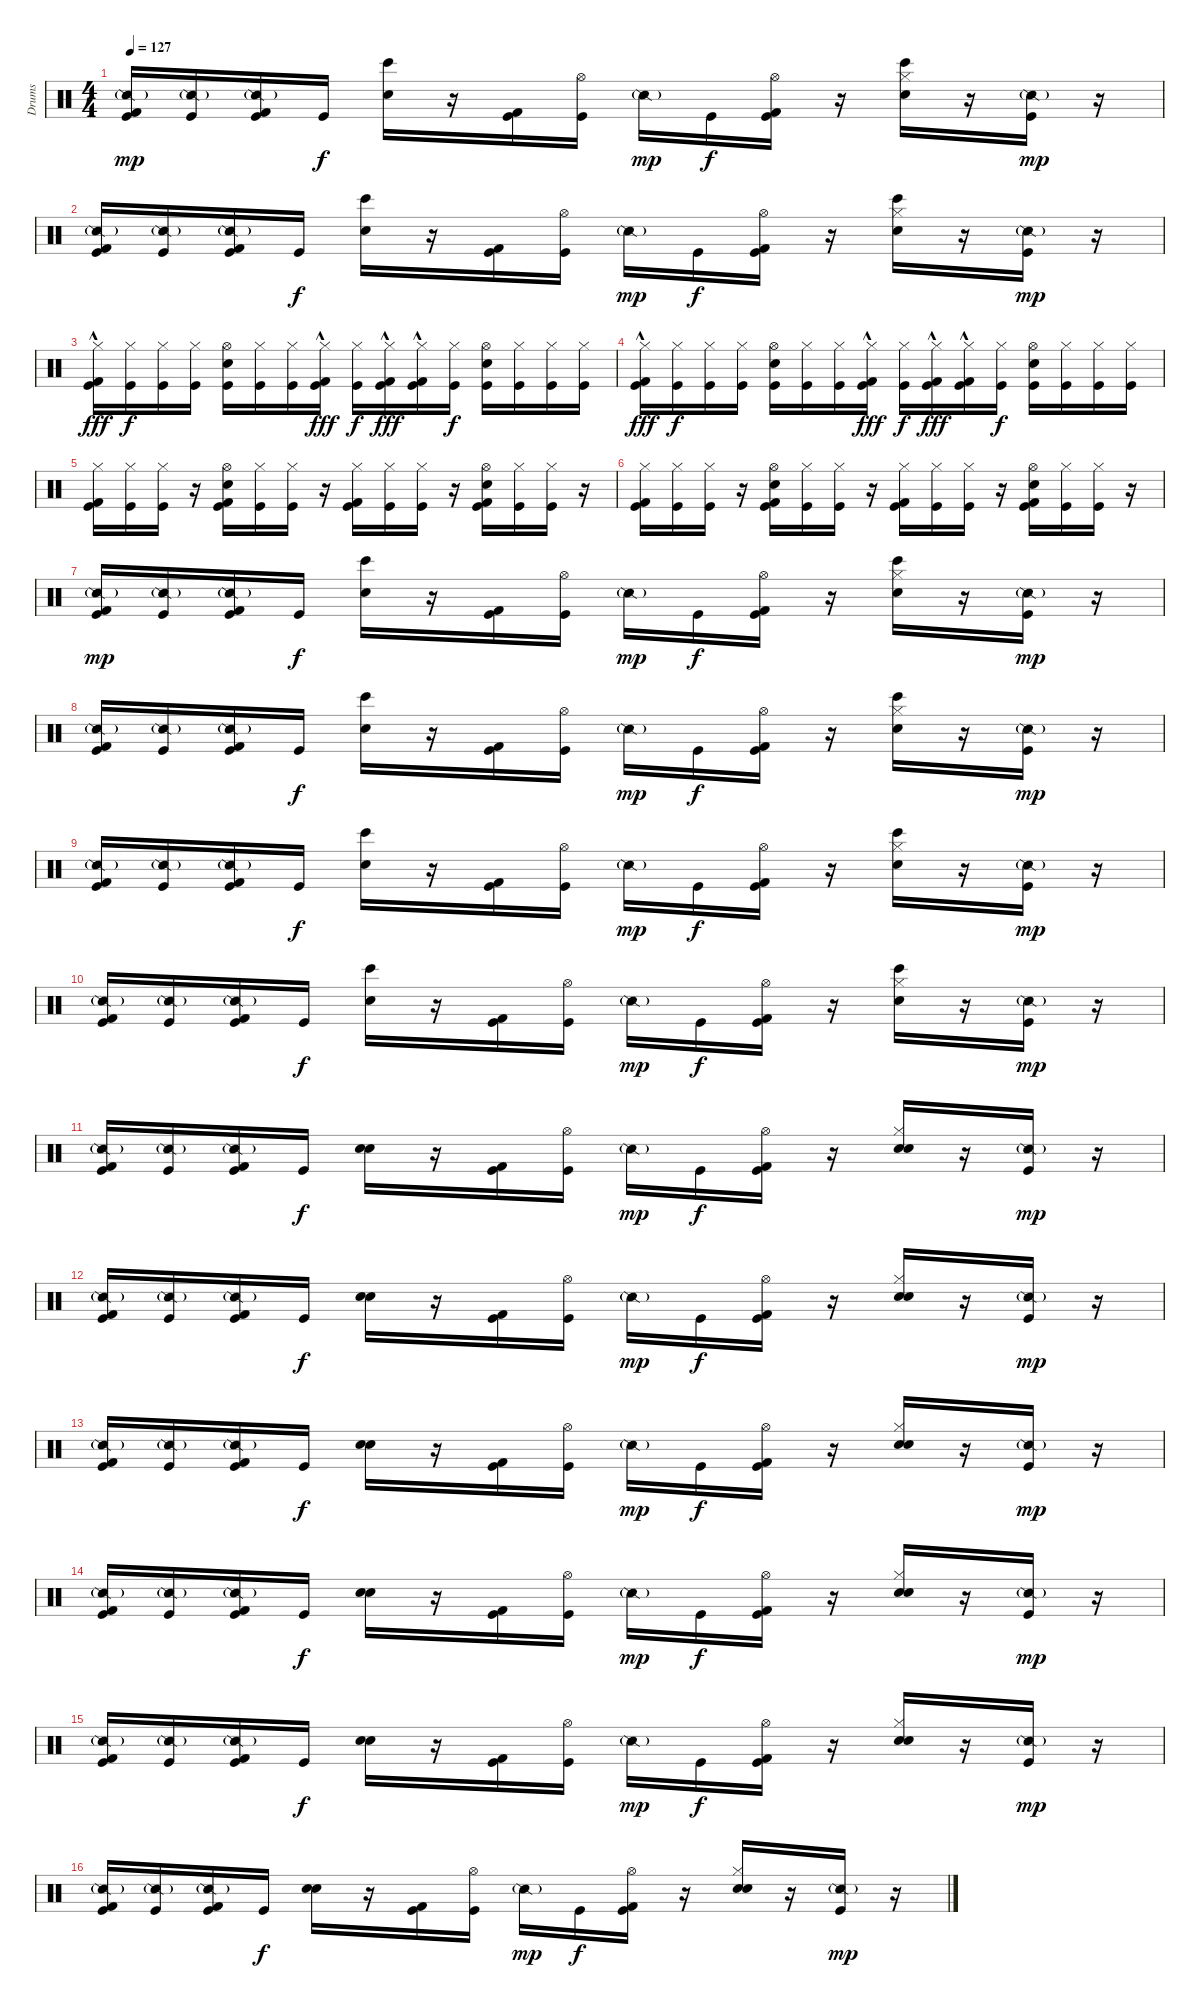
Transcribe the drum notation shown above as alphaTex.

\track ("Drums" "Drums") {instrument percussion}
\staff {score}
\articulation defaults
\ts (4 4)
\tempo 127
\clef neutral
\ks c
("Snare (side stick) 2"{g} "Kick (hit) 2" "Kick (hit)").16{dy mp} ("Snare (side stick) 2"{g} "Kick (hit)").16 ("Snare (side stick) 2"{g} "Kick (hit) 2" "Kick (hit)").16 "Kick (hit)".16{dy f} ("Snare (hit) 2" "Bongo High (hit)").16 r.16 ("Kick (hit) 2" "Kick (hit)").16 ("Hi-Hat (open)" "Kick (hit)").16 "Snare (side stick) 2"{g}.16{dy mp} "Kick (hit)".16{dy f} ("Hi-Hat (open)" "Kick (hit) 2" "Kick (hit)").16 r.16 ("Hi-Hat (closed)" "Snare (hit) 2" "Bongo High (hit)").16 r.16 ("Snare (side stick) 2"{g} "Kick (hit)").16{dy mp} r.16 |
("Snare (side stick) 2"{g} "Kick (hit) 2" "Kick (hit)").16 ("Snare (side stick) 2"{g} "Kick (hit)").16 ("Snare (side stick) 2"{g} "Kick (hit) 2" "Kick (hit)").16 "Kick (hit)".16{dy f} ("Snare (hit) 2" "Bongo High (hit)").16 r.16 ("Kick (hit) 2" "Kick (hit)").16 ("Hi-Hat (open)" "Kick (hit)").16 "Snare (side stick) 2"{g}.16{dy mp} "Kick (hit)".16{dy f} ("Hi-Hat (open)" "Kick (hit) 2" "Kick (hit)").16 r.16 ("Hi-Hat (closed)" "Snare (hit) 2" "Bongo High (hit)").16 r.16 ("Snare (side stick) 2"{g} "Kick (hit)").16{dy mp} r.16 |
("Hi-Hat (closed)" "Kick (hit) 2"{hac} "Kick (hit)").16{dy fff} ("Hi-Hat (closed)" "Kick (hit)").16{dy f} ("Hi-Hat (closed)" "Kick (hit)").16 ("Hi-Hat (closed)" "Kick (hit)").16 ("Hi-Hat (open)" "Snare (hit) 2" "Kick (hit)").16 ("Hi-Hat (closed)" "Kick (hit)").16 ("Hi-Hat (closed)" "Kick (hit)").16 ("Hi-Hat (closed)" "Kick (hit) 2"{hac} "Kick (hit)").16{dy fff} ("Hi-Hat (closed)" "Kick (hit)").16{dy f} ("Hi-Hat (closed)" "Kick (hit) 2"{hac} "Kick (hit)").16{dy fff} ("Hi-Hat (closed)" "Kick (hit) 2"{hac} "Kick (hit)").16 ("Hi-Hat (closed)" "Kick (hit)").16{dy f} ("Hi-Hat (open)" "Electric Snare (hit)" "Kick (hit)").16 ("Hi-Hat (closed)" "Kick (hit)").16 ("Hi-Hat (closed)" "Kick (hit)").16 ("Hi-Hat (closed)" "Kick (hit)").16 |
("Hi-Hat (closed)" "Kick (hit) 2"{hac} "Kick (hit)").16{dy fff} ("Hi-Hat (closed)" "Kick (hit)").16{dy f} ("Hi-Hat (closed)" "Kick (hit)").16 ("Hi-Hat (closed)" "Kick (hit)").16 ("Hi-Hat (open)" "Snare (hit) 2" "Kick (hit)").16 ("Hi-Hat (closed)" "Kick (hit)").16 ("Hi-Hat (closed)" "Kick (hit)").16 ("Hi-Hat (closed)" "Kick (hit) 2"{hac} "Kick (hit)").16{dy fff} ("Hi-Hat (closed)" "Kick (hit)").16{dy f} ("Hi-Hat (closed)" "Kick (hit) 2"{hac} "Kick (hit)").16{dy fff} ("Hi-Hat (closed)" "Kick (hit) 2"{hac} "Kick (hit)").16 ("Hi-Hat (closed)" "Kick (hit)").16{dy f} ("Hi-Hat (open)" "Electric Snare (hit)" "Kick (hit)").16 ("Hi-Hat (closed)" "Kick (hit)").16 ("Hi-Hat (closed)" "Kick (hit)").16 ("Hi-Hat (closed)" "Kick (hit)").16 |
("Hi-Hat (closed)" "Kick (hit) 2" "Kick (hit)").16 ("Hi-Hat (closed)" "Kick (hit)").16 ("Hi-Hat (closed)" "Kick (hit)").16 r.16 ("Hi-Hat (open)" "Snare (hit) 2" "Kick (hit) 2" "Kick (hit)").16 ("Hi-Hat (closed)" "Kick (hit)").16 ("Hi-Hat (closed)" "Kick (hit)").16 r.16 ("Hi-Hat (closed)" "Kick (hit) 2" "Kick (hit)").16 ("Hi-Hat (closed)" "Kick (hit)").16 ("Hi-Hat (closed)" "Kick (hit)").16 r.16 ("Hi-Hat (open)" "Electric Snare (hit)" "Kick (hit) 2" "Kick (hit)").16 ("Hi-Hat (closed)" "Kick (hit)").16 ("Hi-Hat (closed)" "Kick (hit)").16 r.16 |
("Hi-Hat (closed)" "Kick (hit) 2" "Kick (hit)").16 ("Hi-Hat (closed)" "Kick (hit)").16 ("Hi-Hat (closed)" "Kick (hit)").16 r.16 ("Hi-Hat (open)" "Snare (hit) 2" "Kick (hit) 2" "Kick (hit)").16 ("Hi-Hat (closed)" "Kick (hit)").16 ("Hi-Hat (closed)" "Kick (hit)").16 r.16 ("Hi-Hat (closed)" "Kick (hit) 2" "Kick (hit)").16 ("Hi-Hat (closed)" "Kick (hit)").16 ("Hi-Hat (closed)" "Kick (hit)").16 r.16 ("Hi-Hat (open)" "Electric Snare (hit)" "Kick (hit) 2" "Kick (hit)").16 ("Hi-Hat (closed)" "Kick (hit)").16 ("Hi-Hat (closed)" "Kick (hit)").16 r.16 |
("Snare (side stick) 2"{g} "Kick (hit) 2" "Kick (hit)").16{dy mp} ("Snare (side stick) 2"{g} "Kick (hit)").16 ("Snare (side stick) 2"{g} "Kick (hit) 2" "Kick (hit)").16 "Kick (hit)".16{dy f} ("Snare (hit) 2" "Bongo High (hit)").16 r.16 ("Kick (hit) 2" "Kick (hit)").16 ("Hi-Hat (open)" "Kick (hit)").16 "Snare (side stick) 2"{g}.16{dy mp} "Kick (hit)".16{dy f} ("Hi-Hat (open)" "Kick (hit) 2" "Kick (hit)").16 r.16 ("Hi-Hat (closed)" "Snare (hit) 2" "Bongo High (hit)").16 r.16 ("Snare (side stick) 2"{g} "Kick (hit)").16{dy mp} r.16 |
("Snare (side stick) 2"{g} "Kick (hit) 2" "Kick (hit)").16 ("Snare (side stick) 2"{g} "Kick (hit)").16 ("Snare (side stick) 2"{g} "Kick (hit) 2" "Kick (hit)").16 "Kick (hit)".16{dy f} ("Snare (hit) 2" "Bongo High (hit)").16 r.16 ("Kick (hit) 2" "Kick (hit)").16 ("Hi-Hat (open)" "Kick (hit)").16 "Snare (side stick) 2"{g}.16{dy mp} "Kick (hit)".16{dy f} ("Hi-Hat (open)" "Kick (hit) 2" "Kick (hit)").16 r.16 ("Hi-Hat (closed)" "Snare (hit) 2" "Bongo High (hit)").16 r.16 ("Snare (side stick) 2"{g} "Kick (hit)").16{dy mp} r.16 |
("Snare (side stick) 2"{g} "Kick (hit) 2" "Kick (hit)").16 ("Snare (side stick) 2"{g} "Kick (hit)").16 ("Snare (side stick) 2"{g} "Kick (hit) 2" "Kick (hit)").16 "Kick (hit)".16{dy f} ("Snare (hit) 2" "Bongo High (hit)").16 r.16 ("Kick (hit) 2" "Kick (hit)").16 ("Hi-Hat (open)" "Kick (hit)").16 "Snare (side stick) 2"{g}.16{dy mp} "Kick (hit)".16{dy f} ("Hi-Hat (open)" "Kick (hit) 2" "Kick (hit)").16 r.16 ("Hi-Hat (closed)" "Snare (hit) 2" "Bongo High (hit)").16 r.16 ("Snare (side stick) 2"{g} "Kick (hit)").16{dy mp} r.16 |
("Snare (side stick) 2"{g} "Kick (hit) 2" "Kick (hit)").16 ("Snare (side stick) 2"{g} "Kick (hit)").16 ("Snare (side stick) 2"{g} "Kick (hit) 2" "Kick (hit)").16 "Kick (hit)".16{dy f} ("Snare (hit) 2" "Bongo High (hit)").16 r.16 ("Kick (hit) 2" "Kick (hit)").16 ("Hi-Hat (open)" "Kick (hit)").16 "Snare (side stick) 2"{g}.16{dy mp} "Kick (hit)".16{dy f} ("Hi-Hat (open)" "Kick (hit) 2" "Kick (hit)").16 r.16 ("Hi-Hat (closed)" "Snare (hit) 2" "Bongo High (hit)").16 r.16 ("Snare (side stick) 2"{g} "Kick (hit)").16{dy mp} r.16 |
("Snare (side stick) 2"{g} "Kick (hit) 2" "Kick (hit)").16 ("Snare (side stick) 2"{g} "Kick (hit)").16 ("Snare (side stick) 2"{g} "Kick (hit) 2" "Kick (hit)").16 "Kick (hit)".16{dy f} ("Snare (hit) 2" "Hand Clap (hit)").16 r.16 ("Kick (hit) 2" "Kick (hit)").16 ("Hi-Hat (open)" "Kick (hit)").16 "Snare (side stick) 2"{g}.16{dy mp} "Kick (hit)".16{dy f} ("Hi-Hat (open)" "Kick (hit) 2" "Kick (hit)").16 r.16 ("Hi-Hat (closed)" "Snare (hit) 2" "Hand Clap (hit)").16 r.16 ("Snare (side stick) 2"{g} "Kick (hit)").16{dy mp} r.16 |
("Snare (side stick) 2"{g} "Kick (hit) 2" "Kick (hit)").16 ("Snare (side stick) 2"{g} "Kick (hit)").16 ("Snare (side stick) 2"{g} "Kick (hit) 2" "Kick (hit)").16 "Kick (hit)".16{dy f} ("Snare (hit) 2" "Hand Clap (hit)").16 r.16 ("Kick (hit) 2" "Kick (hit)").16 ("Hi-Hat (open)" "Kick (hit)").16 "Snare (side stick) 2"{g}.16{dy mp} "Kick (hit)".16{dy f} ("Hi-Hat (open)" "Kick (hit) 2" "Kick (hit)").16 r.16 ("Hi-Hat (closed)" "Snare (hit) 2" "Hand Clap (hit)").16 r.16 ("Snare (side stick) 2"{g} "Kick (hit)").16{dy mp} r.16 |
("Snare (side stick) 2"{g} "Kick (hit) 2" "Kick (hit)").16 ("Snare (side stick) 2"{g} "Kick (hit)").16 ("Snare (side stick) 2"{g} "Kick (hit) 2" "Kick (hit)").16 "Kick (hit)".16{dy f} ("Snare (hit) 2" "Hand Clap (hit)").16 r.16 ("Kick (hit) 2" "Kick (hit)").16 ("Hi-Hat (open)" "Kick (hit)").16 "Snare (side stick) 2"{g}.16{dy mp} "Kick (hit)".16{dy f} ("Hi-Hat (open)" "Kick (hit) 2" "Kick (hit)").16 r.16 ("Hi-Hat (closed)" "Snare (hit) 2" "Hand Clap (hit)").16 r.16 ("Snare (side stick) 2"{g} "Kick (hit)").16{dy mp} r.16 |
("Snare (side stick) 2"{g} "Kick (hit) 2" "Kick (hit)").16 ("Snare (side stick) 2"{g} "Kick (hit)").16 ("Snare (side stick) 2"{g} "Kick (hit) 2" "Kick (hit)").16 "Kick (hit)".16{dy f} ("Snare (hit) 2" "Hand Clap (hit)").16 r.16 ("Kick (hit) 2" "Kick (hit)").16 ("Hi-Hat (open)" "Kick (hit)").16 "Snare (side stick) 2"{g}.16{dy mp} "Kick (hit)".16{dy f} ("Hi-Hat (open)" "Kick (hit) 2" "Kick (hit)").16 r.16 ("Hi-Hat (closed)" "Snare (hit) 2" "Hand Clap (hit)").16 r.16 ("Snare (side stick) 2"{g} "Kick (hit)").16{dy mp} r.16 |
("Snare (side stick) 2"{g} "Kick (hit) 2" "Kick (hit)").16 ("Snare (side stick) 2"{g} "Kick (hit)").16 ("Snare (side stick) 2"{g} "Kick (hit) 2" "Kick (hit)").16 "Kick (hit)".16{dy f} ("Snare (hit) 2" "Hand Clap (hit)").16 r.16 ("Kick (hit) 2" "Kick (hit)").16 ("Hi-Hat (open)" "Kick (hit)").16 "Snare (side stick) 2"{g}.16{dy mp} "Kick (hit)".16{dy f} ("Hi-Hat (open)" "Kick (hit) 2" "Kick (hit)").16 r.16 ("Hi-Hat (closed)" "Snare (hit) 2" "Hand Clap (hit)").16 r.16 ("Snare (side stick) 2"{g} "Kick (hit)").16{dy mp} r.16 |
("Snare (side stick) 2"{g} "Kick (hit) 2" "Kick (hit)").16 ("Snare (side stick) 2"{g} "Kick (hit)").16 ("Snare (side stick) 2"{g} "Kick (hit) 2" "Kick (hit)").16 "Kick (hit)".16{dy f} ("Snare (hit) 2" "Hand Clap (hit)").16 r.16 ("Kick (hit) 2" "Kick (hit)").16 ("Hi-Hat (open)" "Kick (hit)").16 "Snare (side stick) 2"{g}.16{dy mp} "Kick (hit)".16{dy f} ("Hi-Hat (open)" "Kick (hit) 2" "Kick (hit)").16 r.16 ("Hi-Hat (closed)" "Snare (hit) 2" "Hand Clap (hit)").16 r.16 ("Snare (side stick) 2"{g} "Kick (hit)").16{dy mp} r.16
